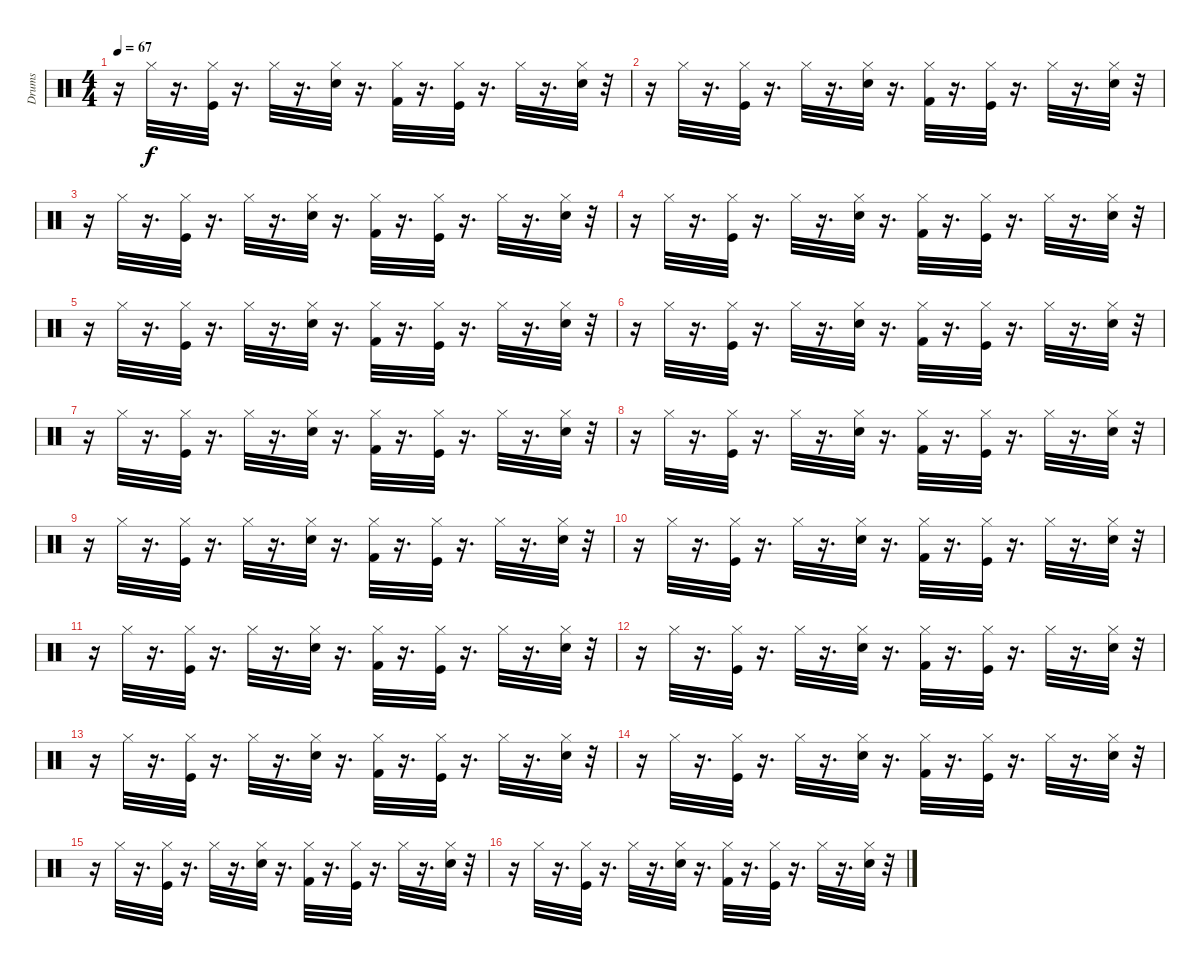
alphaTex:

\track ("Drums" "Drums") {instrument percussion}
\staff {score}
\articulation defaults
\ts (4 4)
\tempo 67
\clef neutral
\ks c
r.16{dy f} "Hi-Hat (closed)".32 r.16{d} ("Hi-Hat (closed)" "Kick (hit)").32 r.16{d} "Hi-Hat (closed)".32 r.16{d} ("Hi-Hat (closed)" "Snare (hit) 2").32 r.16{d} ("Hi-Hat (closed)" "Kick (hit) 2").32 r.16{d} ("Hi-Hat (closed)" "Kick (hit)").32 r.16{d} "Hi-Hat (closed)".32 r.16{d} ("Hi-Hat (closed)" "Snare (hit) 2").32 r.32 |
r.16 "Hi-Hat (closed)".32 r.16{d} ("Kick (hit)" "Hi-Hat (closed)").32 r.16{d} "Hi-Hat (closed)".32 r.16{d} ("Snare (hit) 2" "Hi-Hat (closed)").32 r.16{d} ("Kick (hit) 2" "Hi-Hat (closed)").32 r.16{d} ("Kick (hit)" "Hi-Hat (closed)").32 r.16{d} "Hi-Hat (closed)".32 r.16{d} ("Snare (hit) 2" "Hi-Hat (closed)").32 r.32 |
r.16 "Hi-Hat (closed)".32 r.16{d} ("Kick (hit)" "Hi-Hat (closed)").32 r.16{d} "Hi-Hat (closed)".32 r.16{d} ("Snare (hit) 2" "Hi-Hat (closed)").32 r.16{d} ("Kick (hit) 2" "Hi-Hat (closed)").32 r.16{d} ("Kick (hit)" "Hi-Hat (closed)").32 r.16{d} "Hi-Hat (closed)".32 r.16{d} ("Snare (hit) 2" "Hi-Hat (closed)").32 r.32 |
r.16 "Hi-Hat (closed)".32 r.16{d} ("Hi-Hat (closed)" "Kick (hit)").32 r.16{d} "Hi-Hat (closed)".32 r.16{d} ("Hi-Hat (closed)" "Snare (hit) 2").32 r.16{d} ("Hi-Hat (closed)" "Kick (hit) 2").32 r.16{d} ("Hi-Hat (closed)" "Kick (hit)").32 r.16{d} "Hi-Hat (closed)".32 r.16{d} ("Hi-Hat (closed)" "Snare (hit) 2").32 r.32 |
r.16 "Hi-Hat (closed)".32 r.16{d} ("Hi-Hat (closed)" "Kick (hit)").32 r.16{d} "Hi-Hat (closed)".32 r.16{d} ("Hi-Hat (closed)" "Snare (hit) 2").32 r.16{d} ("Hi-Hat (closed)" "Kick (hit) 2").32 r.16{d} ("Hi-Hat (closed)" "Kick (hit)").32 r.16{d} "Hi-Hat (closed)".32 r.16{d} ("Hi-Hat (closed)" "Snare (hit) 2").32 r.32 |
r.16 "Hi-Hat (closed)".32 r.16{d} ("Kick (hit)" "Hi-Hat (closed)").32 r.16{d} "Hi-Hat (closed)".32 r.16{d} ("Snare (hit) 2" "Hi-Hat (closed)").32 r.16{d} ("Kick (hit) 2" "Hi-Hat (closed)").32 r.16{d} ("Kick (hit)" "Hi-Hat (closed)").32 r.16{d} "Hi-Hat (closed)".32 r.16{d} ("Snare (hit) 2" "Hi-Hat (closed)").32 r.32 |
r.16 "Hi-Hat (closed)".32 r.16{d} ("Kick (hit)" "Hi-Hat (closed)").32 r.16{d} "Hi-Hat (closed)".32 r.16{d} ("Snare (hit) 2" "Hi-Hat (closed)").32 r.16{d} ("Kick (hit) 2" "Hi-Hat (closed)").32 r.16{d} ("Kick (hit)" "Hi-Hat (closed)").32 r.16{d} "Hi-Hat (closed)".32 r.16{d} ("Snare (hit) 2" "Hi-Hat (closed)").32 r.32 |
r.16 "Hi-Hat (closed)".32 r.16{d} ("Hi-Hat (closed)" "Kick (hit)").32 r.16{d} "Hi-Hat (closed)".32 r.16{d} ("Hi-Hat (closed)" "Snare (hit) 2").32 r.16{d} ("Hi-Hat (closed)" "Kick (hit) 2").32 r.16{d} ("Hi-Hat (closed)" "Kick (hit)").32 r.16{d} "Hi-Hat (closed)".32 r.16{d} ("Hi-Hat (closed)" "Snare (hit) 2").32 r.32 |
r.16 "Hi-Hat (closed)".32 r.16{d} ("Hi-Hat (closed)" "Kick (hit)").32 r.16{d} "Hi-Hat (closed)".32 r.16{d} ("Hi-Hat (closed)" "Snare (hit) 2").32 r.16{d} ("Hi-Hat (closed)" "Kick (hit) 2").32 r.16{d} ("Hi-Hat (closed)" "Kick (hit)").32 r.16{d} "Hi-Hat (closed)".32 r.16{d} ("Hi-Hat (closed)" "Snare (hit) 2").32 r.32 |
r.16 "Hi-Hat (closed)".32 r.16{d} ("Kick (hit)" "Hi-Hat (closed)").32 r.16{d} "Hi-Hat (closed)".32 r.16{d} ("Snare (hit) 2" "Hi-Hat (closed)").32 r.16{d} ("Kick (hit) 2" "Hi-Hat (closed)").32 r.16{d} ("Kick (hit)" "Hi-Hat (closed)").32 r.16{d} "Hi-Hat (closed)".32 r.16{d} ("Snare (hit) 2" "Hi-Hat (closed)").32 r.32 |
r.16 "Hi-Hat (closed)".32 r.16{d} ("Kick (hit)" "Hi-Hat (closed)").32 r.16{d} "Hi-Hat (closed)".32 r.16{d} ("Snare (hit) 2" "Hi-Hat (closed)").32 r.16{d} ("Kick (hit) 2" "Hi-Hat (closed)").32 r.16{d} ("Kick (hit)" "Hi-Hat (closed)").32 r.16{d} "Hi-Hat (closed)".32 r.16{d} ("Snare (hit) 2" "Hi-Hat (closed)").32 r.32 |
r.16 "Hi-Hat (closed)".32 r.16{d} ("Hi-Hat (closed)" "Kick (hit)").32 r.16{d} "Hi-Hat (closed)".32 r.16{d} ("Hi-Hat (closed)" "Snare (hit) 2").32 r.16{d} ("Hi-Hat (closed)" "Kick (hit) 2").32 r.16{d} ("Hi-Hat (closed)" "Kick (hit)").32 r.16{d} "Hi-Hat (closed)".32 r.16{d} ("Hi-Hat (closed)" "Snare (hit) 2").32 r.32 |
r.16 "Hi-Hat (closed)".32 r.16{d} ("Hi-Hat (closed)" "Kick (hit)").32 r.16{d} "Hi-Hat (closed)".32 r.16{d} ("Hi-Hat (closed)" "Snare (hit) 2").32 r.16{d} ("Hi-Hat (closed)" "Kick (hit) 2").32 r.16{d} ("Hi-Hat (closed)" "Kick (hit)").32 r.16{d} "Hi-Hat (closed)".32 r.16{d} ("Hi-Hat (closed)" "Snare (hit) 2").32 r.32 |
r.16 "Hi-Hat (closed)".32 r.16{d} ("Kick (hit)" "Hi-Hat (closed)").32 r.16{d} "Hi-Hat (closed)".32 r.16{d} ("Snare (hit) 2" "Hi-Hat (closed)").32 r.16{d} ("Kick (hit) 2" "Hi-Hat (closed)").32 r.16{d} ("Kick (hit)" "Hi-Hat (closed)").32 r.16{d} "Hi-Hat (closed)".32 r.16{d} ("Snare (hit) 2" "Hi-Hat (closed)").32 r.32 |
r.16 "Hi-Hat (closed)".32 r.16{d} ("Kick (hit)" "Hi-Hat (closed)").32 r.16{d} "Hi-Hat (closed)".32 r.16{d} ("Snare (hit) 2" "Hi-Hat (closed)").32 r.16{d} ("Kick (hit) 2" "Hi-Hat (closed)").32 r.16{d} ("Kick (hit)" "Hi-Hat (closed)").32 r.16{d} "Hi-Hat (closed)".32 r.16{d} ("Snare (hit) 2" "Hi-Hat (closed)").32 r.32 |
r.16 "Hi-Hat (closed)".32 r.16{d} ("Hi-Hat (closed)" "Kick (hit)").32 r.16{d} "Hi-Hat (closed)".32 r.16{d} ("Hi-Hat (closed)" "Snare (hit) 2").32 r.16{d} ("Hi-Hat (closed)" "Kick (hit) 2").32 r.16{d} ("Hi-Hat (closed)" "Kick (hit)").32 r.16{d} "Hi-Hat (closed)".32 r.16{d} ("Hi-Hat (closed)" "Snare (hit) 2").32 r.32
